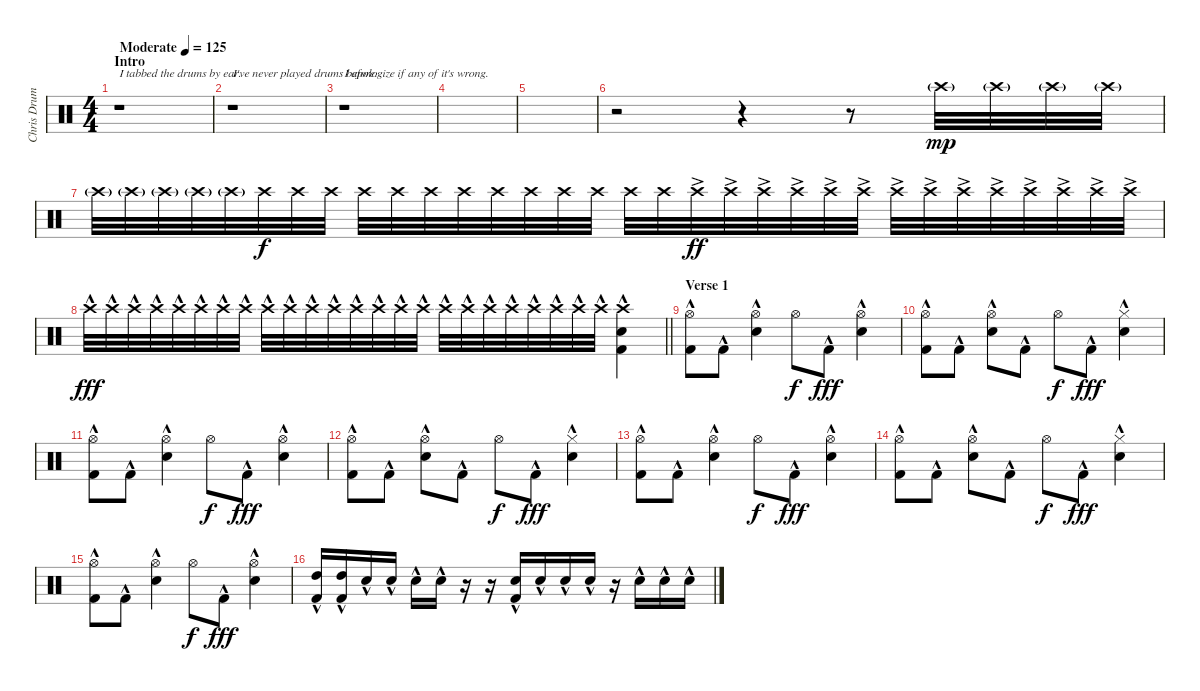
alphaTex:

\track ("Chris Drums" "Chris Drum") {instrument percussion}
\staff {score}
\articulation defaults
\ts (4 4)
\section ("" "Intro")
\tempo (125 "Moderate")
\clef neutral
\ks c
r.1{txt "I tabbed the drums by ear." dy mp} |
r.1{txt "I've never played drums before."} |
r.1{txt "I apologize if any of it's wrong."} |
|
|
r.2 r.4 r.8 "Crash high (hit)"{g}.32 "Crash high (hit)"{g}.32 "Crash high (hit)"{g}.32 "Crash high (hit)"{g}.32 |
"Crash high (hit)"{g}.32 "Crash high (hit)"{g}.32 "Crash high (hit)"{g}.32 "Crash high (hit)"{g}.32 "Crash high (hit)"{g}.32 "Crash high (hit)".32{dy f} "Crash high (hit)".32 "Crash high (hit)".32 "Crash high (hit)".32 "Crash high (hit)".32 "Crash high (hit)".32 "Crash high (hit)".32 "Crash high (hit)".32 "Crash high (hit)".32 "Crash high (hit)".32 "Crash high (hit)".32 "Crash high (hit)".32 "Crash high (hit)".32 "Crash high (hit)"{ac}.32{dy ff} "Crash high (hit)"{ac}.32 "Crash high (hit)"{ac}.32 "Crash high (hit)"{ac}.32 "Crash high (hit)"{ac}.32 "Crash high (hit)"{ac}.32 "Crash high (hit)"{ac}.32 "Crash high (hit)"{ac}.32 "Crash high (hit)"{ac}.32 "Crash high (hit)"{ac}.32 "Crash high (hit)"{ac}.32 "Crash high (hit)"{ac}.32 "Crash high (hit)"{ac}.32 "Crash high (hit)"{ac}.32 |
\barLineRight lightlight "Crash high (hit)"{hac}.32{dy fff} "Crash high (hit)"{hac}.32 "Crash high (hit)"{hac}.32 "Crash high (hit)"{hac}.32 "Crash high (hit)"{hac}.32 "Crash high (hit)"{hac}.32 "Crash high (hit)"{hac}.32 "Crash high (hit)"{hac}.32 "Crash high (hit)"{hac}.32 "Crash high (hit)"{hac}.32 "Crash high (hit)"{hac}.32 "Crash high (hit)"{hac}.32 "Crash high (hit)"{hac}.32 "Crash high (hit)"{hac}.32 "Crash high (hit)"{hac}.32 "Crash high (hit)"{hac}.32 "Crash high (hit)"{hac}.32 "Crash high (hit)"{hac}.32 "Crash high (hit)"{hac}.32 "Crash high (hit)"{hac}.32 "Crash high (hit)"{hac}.32 "Crash high (hit)"{hac}.32 "Crash high (hit)"{hac}.32 "Crash high (hit)"{hac}.32
("Crash high (hit)"{hac} "Snare (hit) 2"{hac} "Kick (hit) 2"{hac}).4 |
\section ("" "Verse 1")
("Hi-Hat (open)" "Kick (hit) 2"{hac}).8 "Kick (hit) 2"{hac}.8 ("Hi-Hat (open)" "Snare (hit) 2"{hac}).4 "Hi-Hat (open)".8{dy f} "Kick (hit) 2"{hac}.8{dy fff} ("Hi-Hat (open)" "Snare (hit) 2"{hac}).4 |
("Hi-Hat (open)" "Kick (hit) 2"{hac}).8 "Kick (hit) 2"{hac}.8 ("Hi-Hat (open)" "Snare (hit) 2"{hac}).8 "Kick (hit) 2"{hac}.8 "Hi-Hat (open)".8{dy f} "Kick (hit) 2"{hac}.8{dy fff} ("Hi-Hat (closed)" "Snare (hit) 2"{hac}).4 |
("Hi-Hat (open)" "Kick (hit) 2"{hac}).8 "Kick (hit) 2"{hac}.8 ("Hi-Hat (open)" "Snare (hit) 2"{hac}).4 "Hi-Hat (open)".8{dy f} "Kick (hit) 2"{hac}.8{dy fff} ("Hi-Hat (open)" "Snare (hit) 2"{hac}).4 |
("Hi-Hat (open)" "Kick (hit) 2"{hac}).8 "Kick (hit) 2"{hac}.8 ("Hi-Hat (open)" "Snare (hit) 2"{hac}).8 "Kick (hit) 2"{hac}.8 "Hi-Hat (open)".8{dy f} "Kick (hit) 2"{hac}.8{dy fff} ("Hi-Hat (closed)" "Snare (hit) 2"{hac}).4 |
("Hi-Hat (open)" "Kick (hit) 2"{hac}).8 "Kick (hit) 2"{hac}.8 ("Hi-Hat (open)" "Snare (hit) 2"{hac}).4 "Hi-Hat (open)".8{dy f} "Kick (hit) 2"{hac}.8{dy fff} ("Hi-Hat (open)" "Snare (hit) 2"{hac}).4 |
("Hi-Hat (open)" "Kick (hit) 2"{hac}).8 "Kick (hit) 2"{hac}.8 ("Hi-Hat (open)" "Snare (hit) 2"{hac}).8 "Kick (hit) 2"{hac}.8 "Hi-Hat (open)".8{dy f} "Kick (hit) 2"{hac}.8{dy fff} ("Hi-Hat (closed)" "Snare (hit) 2"{hac}).4 |
("Hi-Hat (open)" "Kick (hit) 2"{hac}).8 "Kick (hit) 2"{hac}.8 ("Hi-Hat (open)" "Snare (hit) 2"{hac}).4 "Hi-Hat (open)".8{dy f} "Kick (hit) 2"{hac}.8{dy fff} ("Hi-Hat (open)" "Snare (hit) 2"{hac}).4 |
("High Tom (hit)"{hac} "Kick (hit) 2"{hac}).16 ("High Tom (hit)"{hac} "Kick (hit) 2"{hac}).16 "Snare (hit) 2"{hac}.16 "Snare (hit) 2"{hac}.16 "Snare (hit) 2"{hac}.16 "Snare (hit) 2"{hac}.16 r.16 r.16 ("Snare (hit) 2"{hac} "Kick (hit) 2"{hac}).16 "Snare (hit) 2"{hac}.16 "Snare (hit) 2"{hac}.16 "Snare (hit) 2"{hac}.16 r.16 "Snare (hit) 2"{hac}.16 "Snare (hit) 2"{hac}.16 "Snare (hit) 2"{hac}.16
